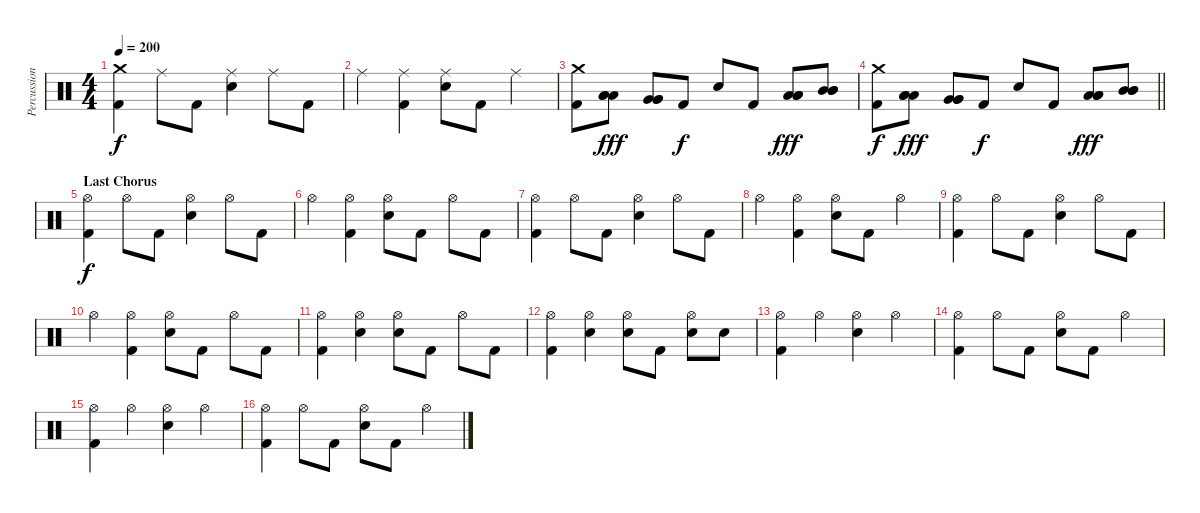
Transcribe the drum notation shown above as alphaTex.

\track ("Percussion" "Percussion") {instrument percussion}
\staff {score}
\articulation defaults
\ts (4 4)
\tempo 200
\clef neutral
\ks c
("Crash medium (hit)" "Kick (hit) 2").4{dy f} "Ride (middle)".8 "Kick (hit) 2".8 ("Ride (middle)" "Electric Snare (hit)").4 "Ride (middle)".8 "Kick (hit) 2".8 |
"Ride (middle)".4 ("Ride (middle)" "Kick (hit) 2").4 ("Ride (middle)" "Electric Snare (hit)").8 "Kick (hit) 2".8 "Ride (middle)".4 |
("Crash medium (hit)" "Kick (hit) 2").8 ("Low Tom (hit)" "Low Tom (hit)" "Low Tom (hit)").8{dy fff balance 12} ("Very Low Tom (hit)" "Very Low Tom (hit)" "Very Low Tom (hit)").8{balance 4} "Kick (hit) 2".8{dy f balance 8} "Electric Snare (hit)".8 "Kick (hit) 2".8 ("Low Tom (hit)" "Low Tom (hit)" "Low Tom (hit)").8{dy fff balance 12} ("Mid Tom (hit)" "Mid Tom (hit)" "Mid Tom (hit)").8{balance 14} |
\barLineRight lightlight
("Crash medium (hit)" "Kick (hit) 2").8{dy f} ("Low Tom (hit)" "Low Tom (hit)" "Low Tom (hit)").8{dy fff balance 12} ("Very Low Tom (hit)" "Very Low Tom (hit)" "Very Low Tom (hit)").8{balance 4} "Kick (hit) 2".8{dy f balance 8} "Electric Snare (hit)".8 "Kick (hit) 2".8 ("Low Tom (hit)" "Low Tom (hit)" "Low Tom (hit)").8{dy fff balance 12} ("Mid Tom (hit)" "Mid Tom (hit)" "Mid Tom (hit)").8{balance 14} |
\section ("" "Last Chorus")
("Hi-Hat (open)" "Kick (hit) 2").4{dy f volume 15 balance 8} "Hi-Hat (open)".8 "Kick (hit) 2".8 ("Hi-Hat (open)" "Electric Snare (hit)").4 "Hi-Hat (open)".8 "Kick (hit) 2".8 |
"Hi-Hat (open)".4 ("Hi-Hat (open)" "Kick (hit) 2").4 ("Hi-Hat (open)" "Electric Snare (hit)").8 "Kick (hit) 2".8 "Hi-Hat (open)".8 "Kick (hit) 2".8 |
("Hi-Hat (open)" "Kick (hit) 2").4 "Hi-Hat (open)".8 "Kick (hit) 2".8 ("Hi-Hat (open)" "Electric Snare (hit)").4 "Hi-Hat (open)".8 "Kick (hit) 2".8 |
"Hi-Hat (open)".4 ("Hi-Hat (open)" "Kick (hit) 2").4 ("Hi-Hat (open)" "Electric Snare (hit)").8 "Kick (hit) 2".8 "Hi-Hat (open)".4 |
("Hi-Hat (open)" "Kick (hit) 2").4 "Hi-Hat (open)".8 "Kick (hit) 2".8 ("Hi-Hat (open)" "Electric Snare (hit)").4 "Hi-Hat (open)".8 "Kick (hit) 2".8 |
"Hi-Hat (open)".4 ("Hi-Hat (open)" "Kick (hit) 2").4 ("Hi-Hat (open)" "Electric Snare (hit)").8 "Kick (hit) 2".8 "Hi-Hat (open)".8 "Kick (hit) 2".8 |
("Hi-Hat (open)" "Kick (hit) 2").4 ("Hi-Hat (open)" "Electric Snare (hit)").4 ("Hi-Hat (open)" "Electric Snare (hit)").8 "Kick (hit) 2".8 "Hi-Hat (open)".8 "Kick (hit) 2".8 |
("Hi-Hat (open)" "Kick (hit) 2").4 ("Hi-Hat (open)" "Electric Snare (hit)").4 ("Hi-Hat (open)" "Electric Snare (hit)").8 "Kick (hit) 2".8 ("Hi-Hat (open)" "Electric Snare (hit)").8 "Electric Snare (hit)".8 |
("Hi-Hat (open)" "Kick (hit) 2").4{volume 15 balance 8} "Hi-Hat (open)".4 ("Hi-Hat (open)" "Electric Snare (hit)").4 "Hi-Hat (open)".4 |
("Hi-Hat (open)" "Kick (hit) 2").4 "Hi-Hat (open)".8 "Kick (hit) 2".8 ("Hi-Hat (open)" "Electric Snare (hit)").8 "Kick (hit) 2".8 "Hi-Hat (open)".4 |
("Hi-Hat (open)" "Kick (hit) 2").4{volume 15 balance 8} "Hi-Hat (open)".4 ("Hi-Hat (open)" "Electric Snare (hit)").4 "Hi-Hat (open)".4 |
("Hi-Hat (open)" "Kick (hit) 2").4 "Hi-Hat (open)".8 "Kick (hit) 2".8 ("Hi-Hat (open)" "Electric Snare (hit)").8 "Kick (hit) 2".8 "Hi-Hat (open)".4
